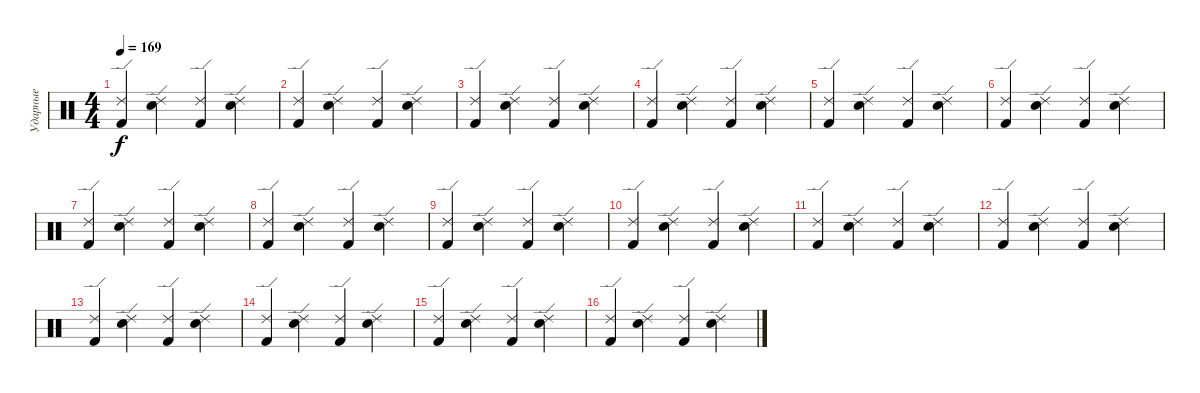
\track ("Ударные" "Ударные") {instrument percussion}
\staff {score}
\articulation defaults
\ts (4 4)
\tempo 169
\clef neutral
\ks c
("Kick (hit) 2" "Ride (edge) 2").4{dy f} ("Electric Snare (hit)" "Ride (edge) 2").4 ("Kick (hit) 2" "Ride (edge) 2").4 ("Electric Snare (hit)" "Ride (edge) 2").4 |
("Kick (hit) 2" "Ride (edge) 2").4 ("Electric Snare (hit)" "Ride (edge) 2").4 ("Kick (hit) 2" "Ride (edge) 2").4 ("Electric Snare (hit)" "Ride (edge) 2").4 |
("Kick (hit) 2" "Ride (edge) 2").4 ("Electric Snare (hit)" "Ride (edge) 2").4 ("Kick (hit) 2" "Ride (edge) 2").4 ("Electric Snare (hit)" "Ride (edge) 2").4 |
("Kick (hit) 2" "Ride (edge) 2").4 ("Electric Snare (hit)" "Ride (edge) 2").4 ("Kick (hit) 2" "Ride (edge) 2").4 ("Electric Snare (hit)" "Ride (edge) 2").4 |
("Kick (hit) 2" "Ride (edge) 2").4 ("Electric Snare (hit)" "Ride (edge) 2").4 ("Kick (hit) 2" "Ride (edge) 2").4 ("Electric Snare (hit)" "Ride (edge) 2").4 |
("Kick (hit) 2" "Ride (edge) 2").4 ("Electric Snare (hit)" "Ride (edge) 2").4 ("Kick (hit) 2" "Ride (edge) 2").4 ("Electric Snare (hit)" "Ride (edge) 2").4 |
("Kick (hit) 2" "Ride (edge) 2").4 ("Electric Snare (hit)" "Ride (edge) 2").4 ("Kick (hit) 2" "Ride (edge) 2").4 ("Electric Snare (hit)" "Ride (edge) 2").4 |
("Kick (hit) 2" "Ride (edge) 2").4 ("Electric Snare (hit)" "Ride (edge) 2").4 ("Kick (hit) 2" "Ride (edge) 2").4 ("Electric Snare (hit)" "Ride (edge) 2").4 |
("Kick (hit) 2" "Ride (edge) 2").4 ("Electric Snare (hit)" "Ride (edge) 2").4 ("Kick (hit) 2" "Ride (edge) 2").4 ("Electric Snare (hit)" "Ride (edge) 2").4 |
("Kick (hit) 2" "Ride (edge) 2").4 ("Electric Snare (hit)" "Ride (edge) 2").4 ("Kick (hit) 2" "Ride (edge) 2").4 ("Electric Snare (hit)" "Ride (edge) 2").4 |
("Kick (hit) 2" "Ride (edge) 2").4 ("Electric Snare (hit)" "Ride (edge) 2").4 ("Kick (hit) 2" "Ride (edge) 2").4 ("Electric Snare (hit)" "Ride (edge) 2").4 |
("Kick (hit) 2" "Ride (edge) 2").4 ("Electric Snare (hit)" "Ride (edge) 2").4 ("Kick (hit) 2" "Ride (edge) 2").4 ("Electric Snare (hit)" "Ride (edge) 2").4 |
("Kick (hit) 2" "Ride (edge) 2").4 ("Electric Snare (hit)" "Ride (edge) 2").4 ("Kick (hit) 2" "Ride (edge) 2").4 ("Electric Snare (hit)" "Ride (edge) 2").4 |
("Kick (hit) 2" "Ride (edge) 2").4 ("Electric Snare (hit)" "Ride (edge) 2").4 ("Kick (hit) 2" "Ride (edge) 2").4 ("Electric Snare (hit)" "Ride (edge) 2").4 |
("Kick (hit) 2" "Ride (edge) 2").4 ("Electric Snare (hit)" "Ride (edge) 2").4 ("Kick (hit) 2" "Ride (edge) 2").4 ("Electric Snare (hit)" "Ride (edge) 2").4 |
("Kick (hit) 2" "Ride (edge) 2").4 ("Electric Snare (hit)" "Ride (edge) 2").4 ("Kick (hit) 2" "Ride (edge) 2").4 ("Electric Snare (hit)" "Ride (edge) 2").4
